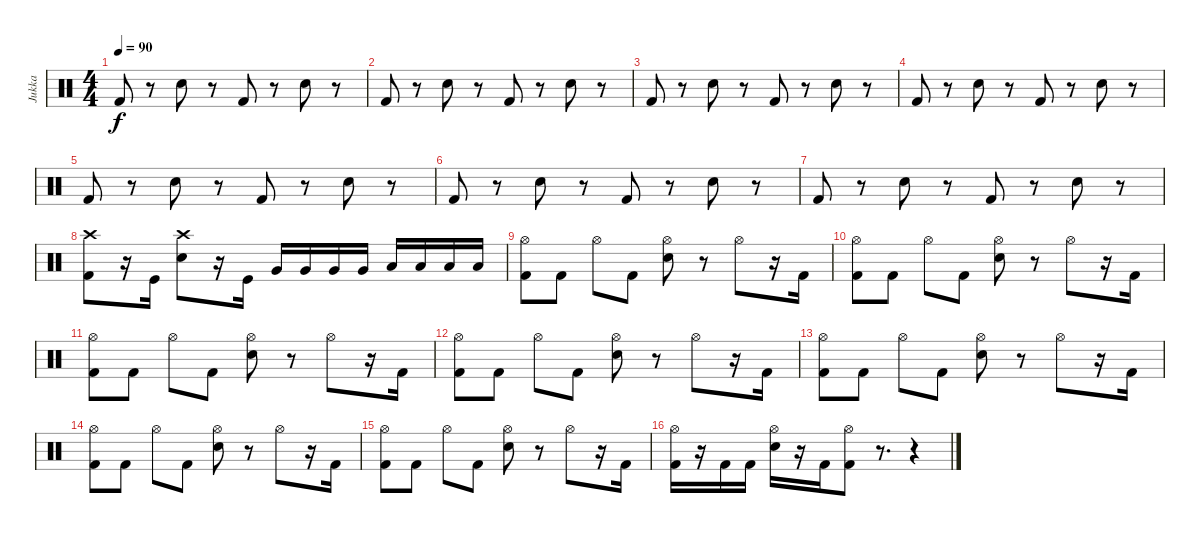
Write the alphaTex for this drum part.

\track ("Jukka" "Jukka") {instrument percussion}
\staff {score}
\articulation defaults
\ts (4 4)
\tempo 90
\clef neutral
\ks c "Kick (hit) 2".8{dy f}
r.8 "Snare (hit) 2".8 r.8 "Kick (hit) 2".8 r.8 "Snare (hit) 2".8 r.8 |
"Kick (hit) 2".8 r.8 "Snare (hit) 2".8 r.8 "Kick (hit) 2".8 r.8 "Snare (hit) 2".8 r.8 |
"Kick (hit) 2".8 r.8 "Snare (hit) 2".8 r.8 "Kick (hit) 2".8 r.8 "Snare (hit) 2".8 r.8 |
"Kick (hit) 2".8 r.8 "Snare (hit) 2".8 r.8 "Kick (hit) 2".8 r.8 "Snare (hit) 2".8 r.8 |
"Kick (hit) 2".8 r.8 "Snare (hit) 2".8 r.8 "Kick (hit) 2".8 r.8 "Snare (hit) 2".8 r.8 |
"Kick (hit) 2".8 r.8 "Snare (hit) 2".8 r.8 "Kick (hit) 2".8 r.8 "Snare (hit) 2".8 r.8 |
"Kick (hit) 2".8 r.8 "Snare (hit) 2".8 r.8 "Kick (hit) 2".8 r.8 "Snare (hit) 2".8 r.8 |
("Crash high (hit)" "Kick (hit) 2").8 r.16 "Kick (hit)".16 ("Snare (hit) 2" "Crash high (hit)").8 r.16 "Kick (hit)".16 "Very Low Tom (hit)".16 "Very Low Tom (hit)".16 "Very Low Tom (hit)".16 "Very Low Tom (hit)".16 "Low Floor Tom (hit)".16 "Low Floor Tom (hit)".16 "Low Floor Tom (hit)".16 "Low Floor Tom (hit)".16 |
("Hi-Hat (open)" "Kick (hit) 2").8 "Kick (hit) 2".8 "Hi-Hat (open)".8 "Kick (hit) 2".8 ("Snare (hit) 2" "Hi-Hat (open)").8 r.8 "Hi-Hat (open)".8 r.16 "Kick (hit) 2".16 |
("Hi-Hat (open)" "Kick (hit) 2").8 "Kick (hit) 2".8 "Hi-Hat (open)".8 "Kick (hit) 2".8 ("Snare (hit) 2" "Hi-Hat (open)").8 r.8 "Hi-Hat (open)".8 r.16 "Kick (hit) 2".16 |
("Hi-Hat (open)" "Kick (hit) 2").8 "Kick (hit) 2".8 "Hi-Hat (open)".8 "Kick (hit) 2".8 ("Snare (hit) 2" "Hi-Hat (open)").8 r.8 "Hi-Hat (open)".8 r.16 "Kick (hit) 2".16 |
("Hi-Hat (open)" "Kick (hit) 2").8 "Kick (hit) 2".8 "Hi-Hat (open)".8 "Kick (hit) 2".8 ("Snare (hit) 2" "Hi-Hat (open)").8 r.8 "Hi-Hat (open)".8 r.16 "Kick (hit) 2".16 |
("Hi-Hat (open)" "Kick (hit) 2").8 "Kick (hit) 2".8 "Hi-Hat (open)".8 "Kick (hit) 2".8 ("Snare (hit) 2" "Hi-Hat (open)").8 r.8 "Hi-Hat (open)".8 r.16 "Kick (hit) 2".16 |
("Hi-Hat (open)" "Kick (hit) 2").8 "Kick (hit) 2".8 "Hi-Hat (open)".8 "Kick (hit) 2".8 ("Snare (hit) 2" "Hi-Hat (open)").8 r.8 "Hi-Hat (open)".8 r.16 "Kick (hit) 2".16 |
("Hi-Hat (open)" "Kick (hit) 2").8 "Kick (hit) 2".8 "Hi-Hat (open)".8 "Kick (hit) 2".8 ("Snare (hit) 2" "Hi-Hat (open)").8 r.8 "Hi-Hat (open)".8 r.16 "Kick (hit) 2".16 |
("Hi-Hat (open)" "Kick (hit) 2").16 r.16 "Kick (hit) 2".16 "Kick (hit) 2".16 ("Snare (hit) 2" "Hi-Hat (open)").16 r.16 "Kick (hit) 2".16 ("Hi-Hat (open)" "Kick (hit) 2").8 r.8{d} r.4
